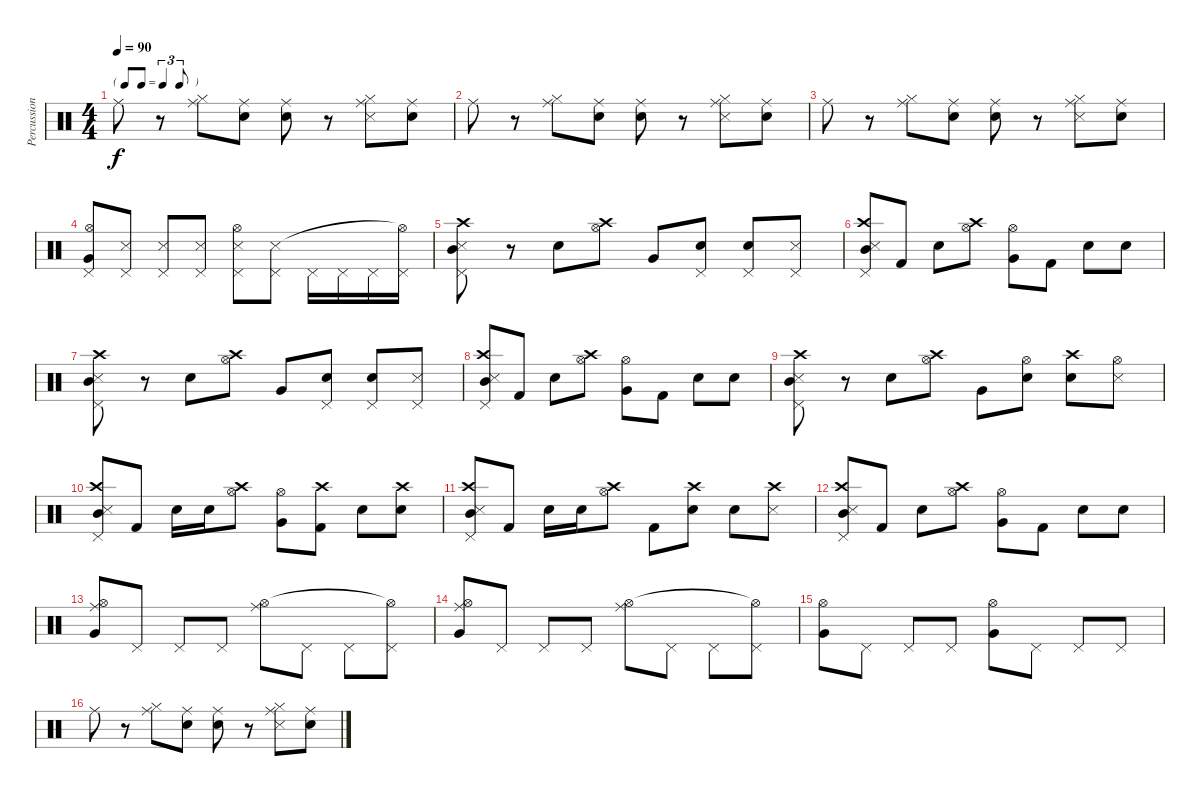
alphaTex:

\track ("Percussion" "Percussion") {instrument percussion}
\staff {score}
\articulation defaults
\ts (4 4)
\tf triplet8th
\tempo 90
\clef neutral
\ks c "Ride (middle)".8{dy f}
r.8 ("Hi-Hat (closed)" "Ride (middle)").8 ("Snare (hit)" "Ride (middle)").8 ("Snare (hit)" "Ride (middle)").8 r.8 ("Hi-Hat (closed)" "Snare (side stick) 3" "Ride (middle)").8 ("Snare (hit)" "Ride (middle)").8 |
"Ride (middle)".8 r.8 ("Hi-Hat (closed)" "Ride (middle)").8 ("Snare (hit)" "Ride (middle)").8 ("Snare (hit)" "Ride (middle)").8 r.8 ("Hi-Hat (closed)" "Snare (side stick) 3" "Ride (middle)").8 ("Snare (hit)" "Ride (middle)").8 |
"Ride (middle)".8 r.8 ("Hi-Hat (closed)" "Ride (middle)").8 ("Snare (hit)" "Ride (middle)").8 ("Snare (hit)" "Ride (middle)").8 r.8 ("Hi-Hat (closed)" "Snare (side stick) 3" "Ride (middle)").8 ("Snare (hit)" "Ride (middle)").8 |
("Pedal Hi-Hat (hit)" "Hi-Hat (open)" "Very Low Tom (hit)").8 ("Pedal Hi-Hat (hit)" "Snare (side stick) 3").8 ("Pedal Hi-Hat (hit)" "Snare (side stick) 3").8 ("Pedal Hi-Hat (hit)" "Snare (side stick) 3").8 ("Pedal Hi-Hat (hit)" "Hi-Hat (open)" "Snare (side stick) 3").8 ("Pedal Hi-Hat (hit)" "Snare (side stick) 3").8 "Pedal Hi-Hat (hit)".16 "Pedal Hi-Hat (hit)".16 "Pedal Hi-Hat (hit)".16 ("Pedal Hi-Hat (hit)" "Hi-Hat (open)"{t}).16 |
("Pedal Hi-Hat (hit)" "Crash high (hit)" "Snare (side stick) 3" "Mid Tom (hit)").8 r.8 "Snare (hit) 2".8 ("Hi-Hat (open)" "Crash high (hit)").8 "Very Low Tom (hit)".8 ("Pedal Hi-Hat (hit)" "Snare (hit) 2").8 ("Pedal Hi-Hat (hit)" "Snare (hit) 2").8 ("Pedal Hi-Hat (hit)" "Snare (side stick) 3").8 |
("Pedal Hi-Hat (hit)" "Crash high (hit)" "Snare (side stick) 3" "Mid Tom (hit)").8 "Kick (hit) 2".8 "Snare (hit) 2".8 ("Hi-Hat (open)" "Crash high (hit)").8 ("Hi-Hat (open)" "Very Low Tom (hit)").8 "Kick (hit) 2".8 "Snare (hit) 2".8 "Snare (hit) 2".8 |
("Pedal Hi-Hat (hit)" "Crash high (hit)" "Snare (side stick) 3" "Mid Tom (hit)").8 r.8 "Snare (hit) 2".8 ("Hi-Hat (open)" "Crash high (hit)").8 "Very Low Tom (hit)".8 ("Pedal Hi-Hat (hit)" "Snare (hit) 2").8 ("Pedal Hi-Hat (hit)" "Snare (hit) 2").8 ("Pedal Hi-Hat (hit)" "Snare (side stick) 3").8 |
("Pedal Hi-Hat (hit)" "Crash high (hit)" "Snare (side stick) 3" "Mid Tom (hit)").8 "Kick (hit) 2".8 "Snare (hit) 2".8 ("Hi-Hat (open)" "Crash high (hit)").8 ("Hi-Hat (open)" "Very Low Tom (hit)").8 "Kick (hit) 2".8 "Snare (hit) 2".8 "Snare (hit) 2".8 |
("Pedal Hi-Hat (hit)" "Crash high (hit)" "Snare (side stick) 3" "Mid Tom (hit)").8 r.8 "Snare (hit) 2".8 ("Hi-Hat (open)" "Crash high (hit)").8 "Very Low Tom (hit)".8 ("Hi-Hat (open)" "Snare (hit) 2").8 ("Crash high (hit)" "Snare (hit) 2").8 ("Hi-Hat (open)" "Snare (side stick) 3").8 |
("Pedal Hi-Hat (hit)" "Crash high (hit)" "Snare (side stick) 3" "Mid Tom (hit)").8 "Kick (hit) 2".8 "Snare (hit) 2".16 "Snare (hit) 2".16 ("Hi-Hat (open)" "Crash high (hit)").8 ("Hi-Hat (open)" "Very Low Tom (hit)").8 ("Crash high (hit)" "Kick (hit) 2").8 "Snare (hit) 2".8 ("Crash high (hit)" "Snare (hit) 2").8 |
("Pedal Hi-Hat (hit)" "Crash high (hit)" "Snare (side stick) 3" "Mid Tom (hit)").8 "Kick (hit) 2".8 "Snare (hit) 2".16 "Snare (hit) 2".16 ("Hi-Hat (open)" "Crash high (hit)").8 "Kick (hit) 2".8 ("Crash high (hit)" "Snare (hit) 2").8 "Snare (hit) 2".8 ("Crash high (hit)" "Snare (side stick) 3").8 |
("Pedal Hi-Hat (hit)" "Crash high (hit)" "Snare (side stick) 3" "Mid Tom (hit)").8 "Kick (hit) 2".8 "Snare (hit) 2".8 ("Hi-Hat (open)" "Crash high (hit)").8 ("Hi-Hat (open)" "Very Low Tom (hit)").8 "Kick (hit) 2".8 "Snare (hit) 2".8 "Snare (hit) 2".8 |
("Ride (middle)" "Hi-Hat (open)" "Very Low Tom (hit)").8 "Pedal Hi-Hat (hit)".8 "Pedal Hi-Hat (hit)".8 "Pedal Hi-Hat (hit)".8 ("Ride (middle)" "Hi-Hat (open)").8 "Pedal Hi-Hat (hit)".8 "Pedal Hi-Hat (hit)".8 ("Pedal Hi-Hat (hit)" "Hi-Hat (open)"{t}).8 |
("Ride (middle)" "Hi-Hat (open)" "Very Low Tom (hit)").8 "Pedal Hi-Hat (hit)".8 "Pedal Hi-Hat (hit)".8 "Pedal Hi-Hat (hit)".8 ("Ride (middle)" "Hi-Hat (open)").8 "Pedal Hi-Hat (hit)".8 "Pedal Hi-Hat (hit)".8 ("Pedal Hi-Hat (hit)" "Hi-Hat (open)"{t}).8 |
("Hi-Hat (open)" "Very Low Tom (hit)").8 "Pedal Hi-Hat (hit)".8 "Pedal Hi-Hat (hit)".8 "Pedal Hi-Hat (hit)".8 ("Hi-Hat (open)" "Very Low Tom (hit)").8 "Pedal Hi-Hat (hit)".8 "Pedal Hi-Hat (hit)".8 "Pedal Hi-Hat (hit)".8 |
"Ride (middle)".8 r.8 ("Hi-Hat (closed)" "Ride (middle)").8 ("Snare (hit)" "Ride (middle)").8 ("Snare (hit)" "Ride (middle)").8 r.8 ("Hi-Hat (closed)" "Snare (side stick) 3" "Ride (middle)").8 ("Snare (hit)" "Ride (middle)").8
